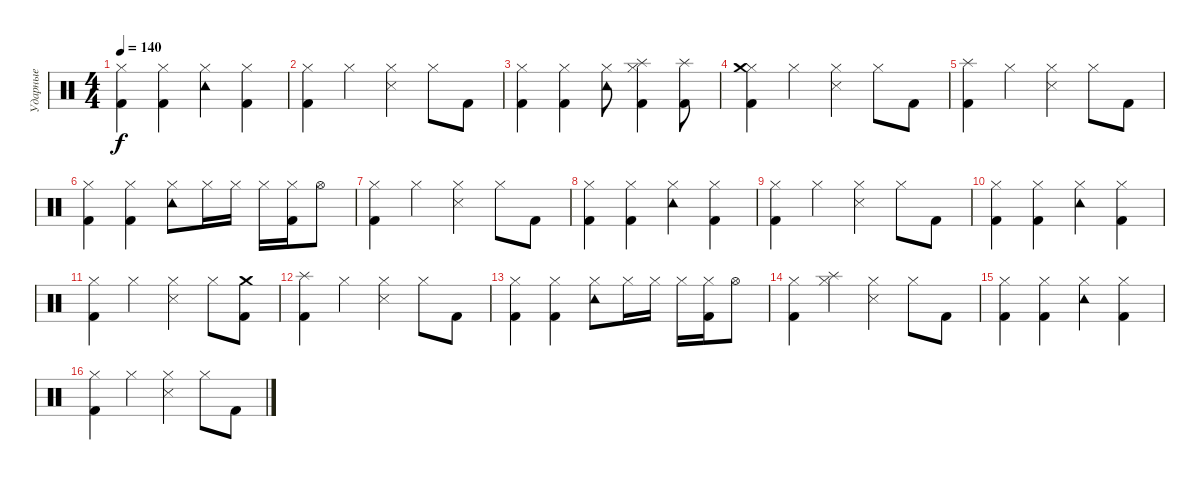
\track ("Ударные" "Ударные") {instrument percussion}
\staff {score}
\articulation defaults
\ts (4 4)
\tempo 140
\clef neutral
\ks c
("Kick (hit) 2" "Hi-Hat (closed)").4{dy f} ("Kick (hit) 2" "Hi-Hat (closed)").4 ("Tambourine (hit)" "Hi-Hat (closed)").4 ("Kick (hit) 2" "Hi-Hat (closed)").4 |
("Hi-Hat (closed)" "Kick (hit) 2").4 "Hi-Hat (closed)".4 ("Snare (side stick) 3" "Hi-Hat (closed)").4 "Hi-Hat (closed)".8 "Kick (hit) 2".8 |
("Kick (hit) 2" "Hi-Hat (closed)").4 ("Kick (hit) 2" "Hi-Hat (closed)").4 ("Tambourine (hit)" "Hi-Hat (closed)").8 ("Kick (hit) 2" "Hi-Hat (closed)" "Splash (hit)").4 ("Kick (hit) 2" "Splash (hit)").8 |
("Hi-Hat (closed)" "Kick (hit) 2" "Crash medium (hit)").4 "Hi-Hat (closed)".4 ("Snare (side stick) 3" "Hi-Hat (closed)").4 "Hi-Hat (closed)".8 "Kick (hit) 2".8 |
("Splash (hit)" "Kick (hit) 2").4 "Hi-Hat (closed)".4 ("Snare (side stick) 3" "Hi-Hat (closed)").4 "Hi-Hat (closed)".8 "Kick (hit) 2".8 |
("Kick (hit) 2" "Hi-Hat (closed)").4 ("Kick (hit) 2" "Hi-Hat (closed)").4 ("Tambourine (hit)" "Hi-Hat (closed)").8 "Hi-Hat (closed)".16 "Hi-Hat (closed)".16 "Hi-Hat (closed)".16 ("Hi-Hat (closed)" "Kick (hit) 2").16 "Hi-Hat (open)".8 |
("Hi-Hat (closed)" "Kick (hit) 2").4 "Hi-Hat (closed)".4 ("Snare (side stick) 3" "Hi-Hat (closed)").4 "Hi-Hat (closed)".8 "Kick (hit) 2".8 |
("Kick (hit) 2" "Hi-Hat (closed)").4 ("Kick (hit) 2" "Hi-Hat (closed)").4 ("Tambourine (hit)" "Hi-Hat (closed)").4 ("Kick (hit) 2" "Hi-Hat (closed)").4 |
("Hi-Hat (closed)" "Kick (hit) 2").4 "Hi-Hat (closed)".4 ("Snare (side stick) 3" "Hi-Hat (closed)").4 "Hi-Hat (closed)".8 "Kick (hit) 2".8 |
("Kick (hit) 2" "Hi-Hat (closed)").4 ("Kick (hit) 2" "Hi-Hat (closed)").4 ("Tambourine (hit)" "Hi-Hat (closed)").4 ("Kick (hit) 2" "Hi-Hat (closed)").4 |
("Hi-Hat (closed)" "Kick (hit) 2").4 "Hi-Hat (closed)".4 ("Snare (side stick) 3" "Hi-Hat (closed)").4 "Hi-Hat (closed)".8 ("Kick (hit) 2" "Crash medium (hit)").8 |
("Splash (hit)" "Kick (hit) 2").4 "Hi-Hat (closed)".4 ("Snare (side stick) 3" "Hi-Hat (closed)").4 "Hi-Hat (closed)".8 "Kick (hit) 2".8 |
("Kick (hit) 2" "Hi-Hat (closed)").4 ("Kick (hit) 2" "Hi-Hat (closed)").4 ("Tambourine (hit)" "Hi-Hat (closed)").8 "Hi-Hat (closed)".16 "Hi-Hat (closed)".16 "Hi-Hat (closed)".16 ("Hi-Hat (closed)" "Kick (hit) 2").16 "Hi-Hat (open)".8 |
("Hi-Hat (closed)" "Kick (hit) 2").4 ("Hi-Hat (closed)" "Splash (hit)").4 ("Snare (side stick) 3" "Hi-Hat (closed)").4 "Hi-Hat (closed)".8 "Kick (hit) 2".8 |
("Kick (hit) 2" "Hi-Hat (closed)").4 ("Kick (hit) 2" "Hi-Hat (closed)").4 ("Tambourine (hit)" "Hi-Hat (closed)").4 ("Kick (hit) 2" "Hi-Hat (closed)").4 |
("Hi-Hat (closed)" "Kick (hit) 2").4 "Hi-Hat (closed)".4 ("Snare (side stick) 3" "Hi-Hat (closed)").4 "Hi-Hat (closed)".8 "Kick (hit) 2".8
